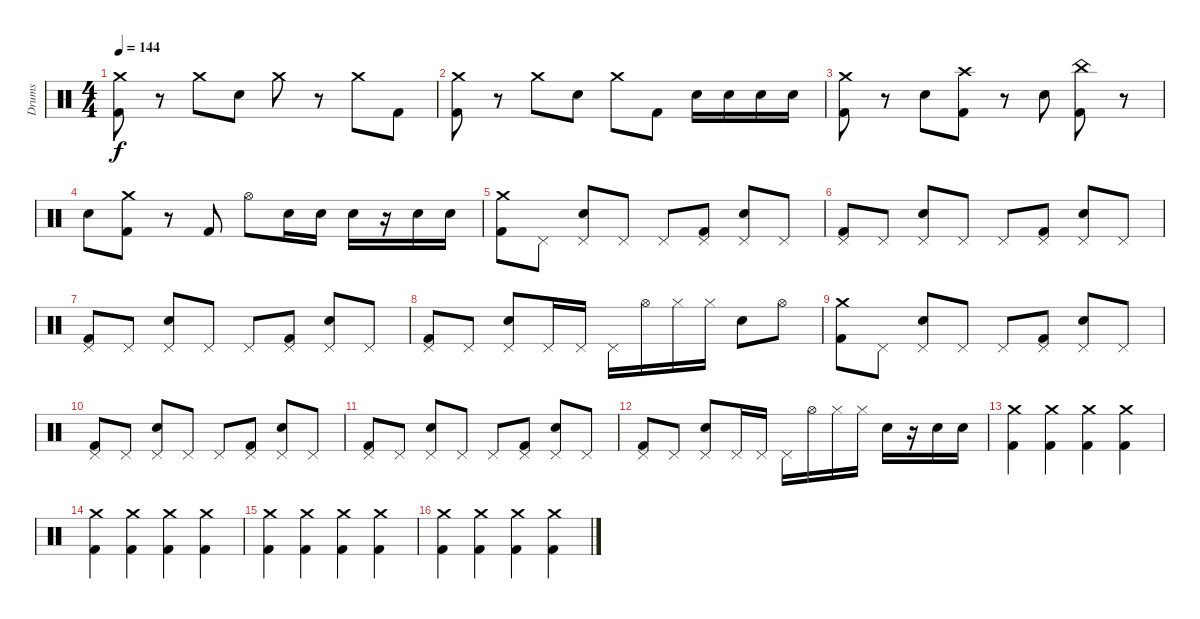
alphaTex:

\track ("Drums" "Drums") {instrument percussion}
\staff {score}
\articulation defaults
\ts (4 4)
\tempo 144
\clef neutral
\ks c
("Crash medium (hit)" "Kick (hit) 2").8{dy f} r.8 "Crash medium (hit)".8 "Electric Snare (hit)".8 "Crash medium (hit)".8 r.8 "Crash medium (hit)".8 "Kick (hit) 2".8 |
("Crash medium (hit)" "Kick (hit) 2").8 r.8 "Crash medium (hit)".8 "Electric Snare (hit)".8 "Crash medium (hit)".8 "Kick (hit) 2".8 "Electric Snare (hit)".16 "Electric Snare (hit)".16 "Electric Snare (hit)".16 "Electric Snare (hit)".16 |
("Crash medium (hit)" "Kick (hit) 2").8 r.8 "Electric Snare (hit)".8 ("Crash high (hit)" "Kick (hit) 2").8 r.8 "Electric Snare (hit)".8 ("China (hit)" "Kick (hit) 2").8 r.8 |
"Electric Snare (hit)".8 ("Crash medium (hit)" "Kick (hit) 2").8 r.8 "Kick (hit) 2".8 "Hi-Hat (open)".8 "Electric Snare (hit)".16 "Electric Snare (hit)".16 "Electric Snare (hit)".16 r.16 "Electric Snare (hit)".16 "Electric Snare (hit)".16 |
("Crash medium (hit)" "Kick (hit) 2").8 "Pedal Hi-Hat (hit)".8 ("Pedal Hi-Hat (hit)" "Electric Snare (hit)").8 "Pedal Hi-Hat (hit)".8 "Pedal Hi-Hat (hit)".8 ("Pedal Hi-Hat (hit)" "Kick (hit) 2").8 ("Pedal Hi-Hat (hit)" "Electric Snare (hit)").8 "Pedal Hi-Hat (hit)".8 |
("Pedal Hi-Hat (hit)" "Kick (hit) 2").8 "Pedal Hi-Hat (hit)".8 ("Pedal Hi-Hat (hit)" "Electric Snare (hit)").8 "Pedal Hi-Hat (hit)".8 "Pedal Hi-Hat (hit)".8 ("Pedal Hi-Hat (hit)" "Kick (hit) 2").8 ("Pedal Hi-Hat (hit)" "Electric Snare (hit)").8 "Pedal Hi-Hat (hit)".8 |
("Pedal Hi-Hat (hit)" "Kick (hit) 2").8 "Pedal Hi-Hat (hit)".8 ("Pedal Hi-Hat (hit)" "Electric Snare (hit)").8 "Pedal Hi-Hat (hit)".8 "Pedal Hi-Hat (hit)".8 ("Pedal Hi-Hat (hit)" "Kick (hit) 2").8 ("Pedal Hi-Hat (hit)" "Electric Snare (hit)").8 "Pedal Hi-Hat (hit)".8 |
("Pedal Hi-Hat (hit)" "Kick (hit) 2").8 "Pedal Hi-Hat (hit)".8 ("Pedal Hi-Hat (hit)" "Electric Snare (hit)").8 "Pedal Hi-Hat (hit)".16 "Pedal Hi-Hat (hit)".16 "Pedal Hi-Hat (hit)".16 "Hi-Hat (open)".16 "Hi-Hat (closed)".16 "Hi-Hat (closed)".16 "Electric Snare (hit)".8 "Hi-Hat (open)".8 |
("Crash medium (hit)" "Kick (hit) 2").8 "Pedal Hi-Hat (hit)".8 ("Pedal Hi-Hat (hit)" "Electric Snare (hit)").8 "Pedal Hi-Hat (hit)".8 "Pedal Hi-Hat (hit)".8 ("Pedal Hi-Hat (hit)" "Kick (hit) 2").8 ("Pedal Hi-Hat (hit)" "Electric Snare (hit)").8 "Pedal Hi-Hat (hit)".8 |
("Pedal Hi-Hat (hit)" "Kick (hit) 2").8 "Pedal Hi-Hat (hit)".8 ("Pedal Hi-Hat (hit)" "Electric Snare (hit)").8 "Pedal Hi-Hat (hit)".8 "Pedal Hi-Hat (hit)".8 ("Pedal Hi-Hat (hit)" "Kick (hit) 2").8 ("Pedal Hi-Hat (hit)" "Electric Snare (hit)").8 "Pedal Hi-Hat (hit)".8 |
("Pedal Hi-Hat (hit)" "Kick (hit) 2").8 "Pedal Hi-Hat (hit)".8 ("Pedal Hi-Hat (hit)" "Electric Snare (hit)").8 "Pedal Hi-Hat (hit)".8 "Pedal Hi-Hat (hit)".8 ("Pedal Hi-Hat (hit)" "Kick (hit) 2").8 ("Pedal Hi-Hat (hit)" "Electric Snare (hit)").8 "Pedal Hi-Hat (hit)".8 |
("Pedal Hi-Hat (hit)" "Kick (hit) 2").8 "Pedal Hi-Hat (hit)".8 ("Pedal Hi-Hat (hit)" "Electric Snare (hit)").8 "Pedal Hi-Hat (hit)".16 "Pedal Hi-Hat (hit)".16 "Pedal Hi-Hat (hit)".16 "Hi-Hat (open)".16 "Hi-Hat (closed)".16 "Hi-Hat (closed)".16 "Electric Snare (hit)".16 r.16 "Electric Snare (hit)".16 "Electric Snare (hit)".16 |
("Crash medium (hit)" "Kick (hit) 2").4 ("Crash medium (hit)" "Kick (hit) 2").4 ("Crash medium (hit)" "Kick (hit) 2").4 ("Crash medium (hit)" "Kick (hit) 2").4 |
("Crash medium (hit)" "Kick (hit) 2").4 ("Crash medium (hit)" "Kick (hit) 2").4 ("Crash medium (hit)" "Kick (hit) 2").4 ("Crash medium (hit)" "Kick (hit) 2").4 |
("Crash medium (hit)" "Kick (hit) 2").4 ("Crash medium (hit)" "Kick (hit) 2").4 ("Crash medium (hit)" "Kick (hit) 2").4 ("Crash medium (hit)" "Kick (hit) 2").4 |
("Crash medium (hit)" "Kick (hit) 2").4 ("Crash medium (hit)" "Kick (hit) 2").4 ("Crash medium (hit)" "Kick (hit) 2").4 ("Crash medium (hit)" "Kick (hit) 2").4
